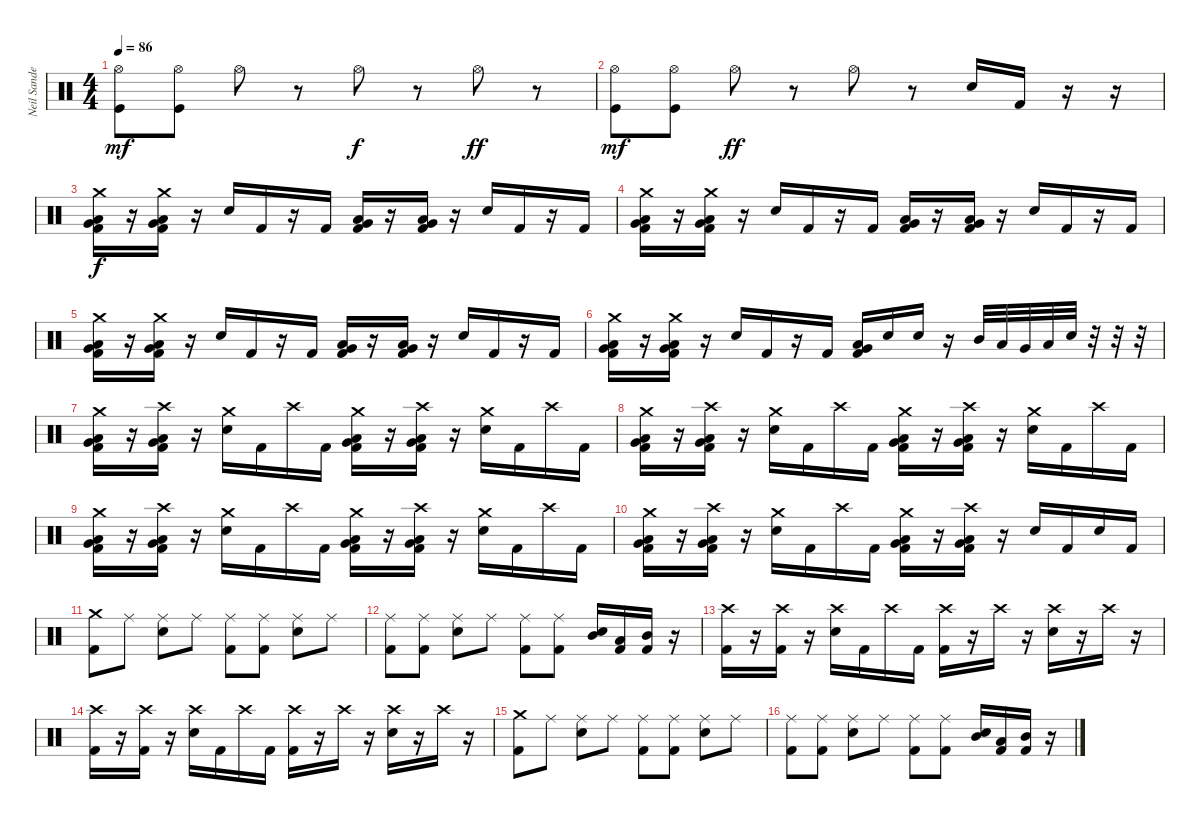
\track ("Neil Sanderson" "Neil Sande") {instrument percussion}
\staff {score}
\articulation defaults
\ts (4 4)
\tempo 86
\clef neutral
\ks c
("Kick (hit)" "Hi-Hat (open)").8{dy mf} ("Kick (hit)" "Hi-Hat (open)").8 "Hi-Hat (open)".8 r.8 "Hi-Hat (open)".8{dy f} r.8 "Hi-Hat (open)".8{dy ff} r.8 |
("Kick (hit)" "Hi-Hat (open)").8{dy mf} ("Kick (hit)" "Hi-Hat (open)").8 "Hi-Hat (open)".8{dy ff} r.8 "Hi-Hat (open)".8 r.8 "Snare (hit) 2".16 "Kick (hit) 2".16 r.16 r.16 |
("Low Floor Tom (hit)" "Very Low Tom (hit)" "Kick (hit) 2" "Crash medium (hit)").16{dy f} r.16 ("Low Floor Tom (hit)" "Very Low Tom (hit)" "Kick (hit) 2" "Crash medium (hit)").16 r.16 "Snare (hit) 2".16 "Kick (hit) 2".16 r.16 "Kick (hit) 2".16 ("Low Floor Tom (hit)" "Very Low Tom (hit)" "Kick (hit) 2").16 r.16 ("Low Floor Tom (hit)" "Very Low Tom (hit)" "Kick (hit) 2").16 r.16 "Snare (hit) 2".16 "Kick (hit) 2".16 r.16 "Kick (hit) 2".16 |
("Low Floor Tom (hit)" "Very Low Tom (hit)" "Kick (hit) 2" "Crash medium (hit)").16 r.16 ("Low Floor Tom (hit)" "Very Low Tom (hit)" "Kick (hit) 2" "Crash medium (hit)").16 r.16 "Snare (hit) 2".16 "Kick (hit) 2".16 r.16 "Kick (hit) 2".16 ("Low Floor Tom (hit)" "Very Low Tom (hit)" "Kick (hit) 2").16 r.16 ("Low Floor Tom (hit)" "Very Low Tom (hit)" "Kick (hit) 2").16 r.16 "Snare (hit) 2".16 "Kick (hit) 2".16 r.16 "Kick (hit) 2".16 |
("Low Floor Tom (hit)" "Very Low Tom (hit)" "Kick (hit) 2" "Crash medium (hit)").16 r.16 ("Low Floor Tom (hit)" "Very Low Tom (hit)" "Kick (hit) 2" "Crash medium (hit)").16 r.16 "Snare (hit) 2".16 "Kick (hit) 2".16 r.16 "Kick (hit) 2".16 ("Low Floor Tom (hit)" "Very Low Tom (hit)" "Kick (hit) 2").16 r.16 ("Low Floor Tom (hit)" "Very Low Tom (hit)" "Kick (hit) 2").16 r.16 "Snare (hit) 2".16 "Kick (hit) 2".16 r.16 "Kick (hit) 2".16 |
("Low Floor Tom (hit)" "Very Low Tom (hit)" "Kick (hit) 2" "Crash medium (hit)").16 r.16 ("Low Floor Tom (hit)" "Very Low Tom (hit)" "Kick (hit) 2" "Crash medium (hit)").16 r.16 "Snare (hit) 2".16 "Kick (hit) 2".16 r.16 "Kick (hit) 2".16 ("Low Floor Tom (hit)" "Very Low Tom (hit)" "Kick (hit) 2").16 "Snare (hit) 2".16 "Snare (hit) 2".16 r.16 "Mid Tom (hit)".32 "Low Tom (hit)".32 "Very Low Tom (hit)".32 "Low Floor Tom (hit)".32 "Snare (hit) 2".32 r.32 r.32 r.32 |
("Low Floor Tom (hit)" "Very Low Tom (hit)" "Kick (hit) 2" "Crash medium (hit)").16 r.16 ("Low Floor Tom (hit)" "Very Low Tom (hit)" "Kick (hit) 2" "Crash high (hit)").16 r.16 ("Snare (hit) 2" "Crash medium (hit)").16 "Kick (hit) 2".16 "Crash high (hit)".16 "Kick (hit) 2".16 ("Low Floor Tom (hit)" "Very Low Tom (hit)" "Kick (hit) 2" "Crash medium (hit)").16 r.16 ("Low Floor Tom (hit)" "Very Low Tom (hit)" "Kick (hit) 2" "Crash high (hit)").16 r.16 ("Snare (hit) 2" "Crash medium (hit)").16 "Kick (hit) 2".16 "Crash high (hit)".16 "Kick (hit) 2".16 |
("Low Floor Tom (hit)" "Very Low Tom (hit)" "Kick (hit) 2" "Crash medium (hit)").16 r.16 ("Low Floor Tom (hit)" "Very Low Tom (hit)" "Kick (hit) 2" "Crash high (hit)").16 r.16 ("Snare (hit) 2" "Crash medium (hit)").16 "Kick (hit) 2".16 "Crash high (hit)".16 "Kick (hit) 2".16 ("Low Floor Tom (hit)" "Very Low Tom (hit)" "Kick (hit) 2" "Crash medium (hit)").16 r.16 ("Low Floor Tom (hit)" "Very Low Tom (hit)" "Kick (hit) 2" "Crash high (hit)").16 r.16 ("Snare (hit) 2" "Crash medium (hit)").16 "Kick (hit) 2".16 "Crash high (hit)".16 "Kick (hit) 2".16 |
("Low Floor Tom (hit)" "Very Low Tom (hit)" "Kick (hit) 2" "Crash medium (hit)").16 r.16 ("Low Floor Tom (hit)" "Very Low Tom (hit)" "Kick (hit) 2" "Crash high (hit)").16 r.16 ("Snare (hit) 2" "Crash medium (hit)").16 "Kick (hit) 2".16 "Crash high (hit)".16 "Kick (hit) 2".16 ("Low Floor Tom (hit)" "Very Low Tom (hit)" "Kick (hit) 2" "Crash medium (hit)").16 r.16 ("Low Floor Tom (hit)" "Very Low Tom (hit)" "Kick (hit) 2" "Crash high (hit)").16 r.16 ("Snare (hit) 2" "Crash medium (hit)").16 "Kick (hit) 2".16 "Crash high (hit)".16 "Kick (hit) 2".16 |
("Low Floor Tom (hit)" "Very Low Tom (hit)" "Kick (hit) 2" "Crash medium (hit)").16 r.16 ("Low Floor Tom (hit)" "Very Low Tom (hit)" "Kick (hit) 2" "Crash high (hit)").16 r.16 ("Snare (hit) 2" "Crash medium (hit)").16 "Kick (hit) 2".16 "Crash high (hit)".16 "Kick (hit) 2".16 ("Low Floor Tom (hit)" "Very Low Tom (hit)" "Kick (hit) 2" "Crash medium (hit)").16 r.16 ("Low Floor Tom (hit)" "Very Low Tom (hit)" "Kick (hit) 2" "Crash high (hit)").16 r.16 "Snare (hit) 2".16 "Kick (hit) 2".16 "Snare (hit) 2".16 "Kick (hit) 2".16 |
("Kick (hit) 2" "Crash medium (hit)").8 "Ride (middle)".8 ("Snare (hit) 2" "Ride (middle)").8 "Ride (middle)".8 ("Kick (hit) 2" "Ride (middle)").8 ("Kick (hit) 2" "Ride (middle)").8 ("Snare (hit) 2" "Ride (middle)").8 "Ride (middle)".8 |
("Kick (hit) 2" "Ride (middle)").8 ("Kick (hit) 2" "Ride (middle)").8 ("Snare (hit) 2" "Ride (middle)").8 "Ride (middle)".8 ("Kick (hit) 2" "Ride (middle)").8 ("Kick (hit) 2" "Ride (middle)").8 ("Snare (hit) 2" "Mid Tom (hit)").16 ("Kick (hit) 2" "Low Tom (hit)").16 ("Kick (hit) 2" "Mid Tom (hit)").16 r.16 |
("Kick (hit) 2" "Crash high (hit)").16 r.16 ("Kick (hit) 2" "Crash high (hit)").16 r.16 ("Snare (hit) 2" "Crash high (hit)").16 "Kick (hit) 2".16 "Crash high (hit)".16 "Kick (hit) 2".16 ("Kick (hit) 2" "Crash high (hit)").16 r.16 "Crash high (hit)".16 r.16 ("Snare (hit) 2" "Crash high (hit)").16 r.16 "Crash high (hit)".16 r.16 |
("Kick (hit) 2" "Crash high (hit)").16 r.16 ("Kick (hit) 2" "Crash high (hit)").16 r.16 ("Snare (hit) 2" "Crash high (hit)").16 "Kick (hit) 2".16 "Crash high (hit)".16 "Kick (hit) 2".16 ("Kick (hit) 2" "Crash high (hit)").16 r.16 "Crash high (hit)".16 r.16 ("Snare (hit) 2" "Crash high (hit)").16 r.16 "Crash high (hit)".16 r.16 |
("Kick (hit) 2" "Crash medium (hit)").8 "Ride (middle)".8 ("Snare (hit) 2" "Ride (middle)").8 "Ride (middle)".8 ("Kick (hit) 2" "Ride (middle)").8 ("Kick (hit) 2" "Ride (middle)").8 ("Snare (hit) 2" "Ride (middle)").8 "Ride (middle)".8 |
("Kick (hit) 2" "Ride (middle)").8 ("Kick (hit) 2" "Ride (middle)").8 ("Snare (hit) 2" "Ride (middle)").8 "Ride (middle)".8 ("Kick (hit) 2" "Ride (middle)").8 ("Kick (hit) 2" "Ride (middle)").8 ("Snare (hit) 2" "Mid Tom (hit)").16 ("Kick (hit) 2" "Low Tom (hit)").16 ("Kick (hit) 2" "Mid Tom (hit)").16 r.16
